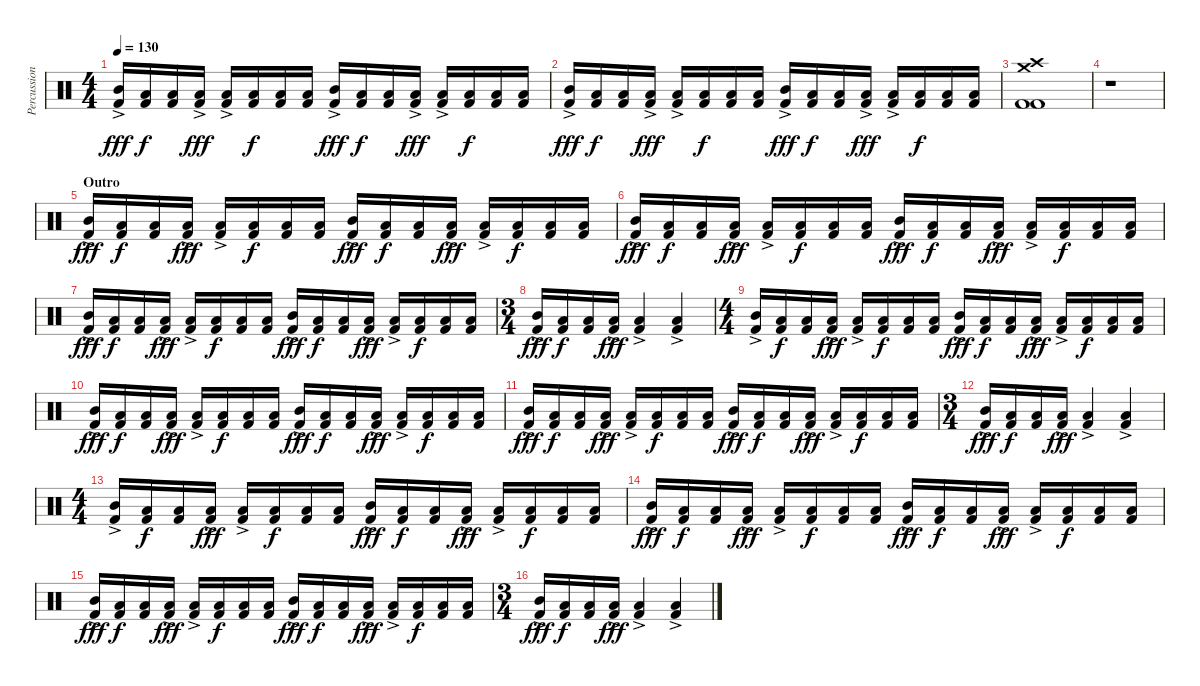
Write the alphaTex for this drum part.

\track ("Percussion" "Percussion") {instrument percussion}
\staff {score}
\articulation defaults
\ts (4 4)
\tempo 130
\clef neutral
\ks c
("Mid Tom (hit)"{ac} "Kick (hit) 2").16{dy fff} ("Low Floor Tom (hit)" "Kick (hit) 2").16{dy f} ("Low Floor Tom (hit)" "Kick (hit) 2").16 ("Low Tom (hit)"{ac} "Kick (hit) 2").16{dy fff} ("Low Tom (hit)"{ac} "Kick (hit) 2").16 ("Low Floor Tom (hit)" "Kick (hit) 2").16{dy f} ("Low Floor Tom (hit)" "Kick (hit) 2").16 ("Low Floor Tom (hit)" "Kick (hit) 2").16 ("Mid Tom (hit)"{ac} "Kick (hit) 2").16{dy fff} ("Low Floor Tom (hit)" "Kick (hit) 2").16{dy f} ("Low Floor Tom (hit)" "Kick (hit) 2").16 ("Low Tom (hit)"{ac} "Kick (hit) 2").16{dy fff} ("Low Tom (hit)"{ac} "Kick (hit) 2").16 ("Low Floor Tom (hit)" "Kick (hit) 2").16{dy f} ("Low Floor Tom (hit)" "Kick (hit) 2").16 ("Low Floor Tom (hit)" "Kick (hit) 2").16 |
("Mid Tom (hit)"{ac} "Kick (hit) 2").16{dy fff} ("Low Floor Tom (hit)" "Kick (hit) 2").16{dy f} ("Low Floor Tom (hit)" "Kick (hit) 2").16 ("Low Tom (hit)"{ac} "Kick (hit) 2").16{dy fff} ("Low Tom (hit)"{ac} "Kick (hit) 2").16 ("Low Floor Tom (hit)" "Kick (hit) 2").16{dy f} ("Low Floor Tom (hit)" "Kick (hit) 2").16 ("Low Floor Tom (hit)" "Kick (hit) 2").16 ("Mid Tom (hit)"{ac} "Kick (hit) 2").16{dy fff} ("Low Floor Tom (hit)" "Kick (hit) 2").16{dy f} ("Low Floor Tom (hit)" "Kick (hit) 2").16 ("Low Tom (hit)"{ac} "Kick (hit) 2").16{dy fff} ("Low Tom (hit)"{ac} "Kick (hit) 2").16 ("Low Floor Tom (hit)" "Kick (hit) 2").16{dy f} ("Low Floor Tom (hit)" "Kick (hit) 2").16 ("Low Floor Tom (hit)" "Kick (hit) 2").16 |
("Crash high (hit)" "Crash medium (hit)" "Kick (hit) 2" "Kick (hit) 2").1 |
r.1 |
\section ("" "Outro")
("Mid Tom (hit)"{ac} "Kick (hit) 2").16{dy fff} ("Low Floor Tom (hit)" "Kick (hit) 2").16{dy f} ("Low Floor Tom (hit)" "Kick (hit) 2").16 ("Low Tom (hit)"{ac} "Kick (hit) 2").16{dy fff} ("Low Tom (hit)"{ac} "Kick (hit) 2").16 ("Low Floor Tom (hit)" "Kick (hit) 2").16{dy f} ("Low Floor Tom (hit)" "Kick (hit) 2").16 ("Low Floor Tom (hit)" "Kick (hit) 2").16 ("Mid Tom (hit)"{ac} "Kick (hit) 2").16{dy fff} ("Low Floor Tom (hit)" "Kick (hit) 2").16{dy f} ("Low Floor Tom (hit)" "Kick (hit) 2").16 ("Low Tom (hit)"{ac} "Kick (hit) 2").16{dy fff} ("Low Tom (hit)"{ac} "Kick (hit) 2").16 ("Low Floor Tom (hit)" "Kick (hit) 2").16{dy f} ("Low Floor Tom (hit)" "Kick (hit) 2").16 ("Low Floor Tom (hit)" "Kick (hit) 2").16 |
("Mid Tom (hit)"{ac} "Kick (hit) 2").16{dy fff} ("Low Floor Tom (hit)" "Kick (hit) 2").16{dy f} ("Low Floor Tom (hit)" "Kick (hit) 2").16 ("Low Tom (hit)"{ac} "Kick (hit) 2").16{dy fff} ("Low Tom (hit)"{ac} "Kick (hit) 2").16 ("Low Floor Tom (hit)" "Kick (hit) 2").16{dy f} ("Low Floor Tom (hit)" "Kick (hit) 2").16 ("Low Floor Tom (hit)" "Kick (hit) 2").16 ("Mid Tom (hit)"{ac} "Kick (hit) 2").16{dy fff} ("Low Floor Tom (hit)" "Kick (hit) 2").16{dy f} ("Low Floor Tom (hit)" "Kick (hit) 2").16 ("Low Tom (hit)"{ac} "Kick (hit) 2").16{dy fff} ("Low Tom (hit)"{ac} "Kick (hit) 2").16 ("Low Floor Tom (hit)" "Kick (hit) 2").16{dy f} ("Low Floor Tom (hit)" "Kick (hit) 2").16 ("Low Floor Tom (hit)" "Kick (hit) 2").16 |
("Mid Tom (hit)"{ac} "Kick (hit) 2").16{dy fff} ("Low Floor Tom (hit)" "Kick (hit) 2").16{dy f} ("Low Floor Tom (hit)" "Kick (hit) 2").16 ("Low Tom (hit)"{ac} "Kick (hit) 2").16{dy fff} ("Low Tom (hit)"{ac} "Kick (hit) 2").16 ("Low Floor Tom (hit)" "Kick (hit) 2").16{dy f} ("Low Floor Tom (hit)" "Kick (hit) 2").16 ("Low Floor Tom (hit)" "Kick (hit) 2").16 ("Mid Tom (hit)"{ac} "Kick (hit) 2").16{dy fff} ("Low Floor Tom (hit)" "Kick (hit) 2").16{dy f} ("Low Floor Tom (hit)" "Kick (hit) 2").16 ("Low Tom (hit)"{ac} "Kick (hit) 2").16{dy fff} ("Low Tom (hit)"{ac} "Kick (hit) 2").16 ("Low Floor Tom (hit)" "Kick (hit) 2").16{dy f} ("Low Floor Tom (hit)" "Kick (hit) 2").16 ("Low Floor Tom (hit)" "Kick (hit) 2").16 |
\ts (3 4)
("Mid Tom (hit)"{ac} "Kick (hit) 2").16{dy fff} ("Low Floor Tom (hit)" "Kick (hit) 2").16{dy f} ("Low Floor Tom (hit)" "Kick (hit) 2").16 ("Low Tom (hit)"{ac} "Kick (hit) 2").16{dy fff} ("Low Tom (hit)"{ac} "Kick (hit) 2").4 ("Low Tom (hit)"{ac} "Kick (hit) 2"{ac}).4 |
\ts (4 4)
("Mid Tom (hit)"{ac} "Kick (hit) 2").16 ("Low Floor Tom (hit)" "Kick (hit) 2").16{dy f} ("Low Floor Tom (hit)" "Kick (hit) 2").16 ("Low Tom (hit)"{ac} "Kick (hit) 2").16{dy fff} ("Low Tom (hit)"{ac} "Kick (hit) 2").16 ("Low Floor Tom (hit)" "Kick (hit) 2").16{dy f} ("Low Floor Tom (hit)" "Kick (hit) 2").16 ("Low Floor Tom (hit)" "Kick (hit) 2").16 ("Mid Tom (hit)"{ac} "Kick (hit) 2").16{dy fff} ("Low Floor Tom (hit)" "Kick (hit) 2").16{dy f} ("Low Floor Tom (hit)" "Kick (hit) 2").16 ("Low Tom (hit)"{ac} "Kick (hit) 2").16{dy fff} ("Low Tom (hit)"{ac} "Kick (hit) 2").16 ("Low Floor Tom (hit)" "Kick (hit) 2").16{dy f} ("Low Floor Tom (hit)" "Kick (hit) 2").16 ("Low Floor Tom (hit)" "Kick (hit) 2").16 |
("Mid Tom (hit)"{ac} "Kick (hit) 2").16{dy fff} ("Low Floor Tom (hit)" "Kick (hit) 2").16{dy f} ("Low Floor Tom (hit)" "Kick (hit) 2").16 ("Low Tom (hit)"{ac} "Kick (hit) 2").16{dy fff} ("Low Tom (hit)"{ac} "Kick (hit) 2").16 ("Low Floor Tom (hit)" "Kick (hit) 2").16{dy f} ("Low Floor Tom (hit)" "Kick (hit) 2").16 ("Low Floor Tom (hit)" "Kick (hit) 2").16 ("Mid Tom (hit)"{ac} "Kick (hit) 2").16{dy fff} ("Low Floor Tom (hit)" "Kick (hit) 2").16{dy f} ("Low Floor Tom (hit)" "Kick (hit) 2").16 ("Low Tom (hit)"{ac} "Kick (hit) 2").16{dy fff} ("Low Tom (hit)"{ac} "Kick (hit) 2").16 ("Low Floor Tom (hit)" "Kick (hit) 2").16{dy f} ("Low Floor Tom (hit)" "Kick (hit) 2").16 ("Low Floor Tom (hit)" "Kick (hit) 2").16 |
("Mid Tom (hit)"{ac} "Kick (hit) 2").16{dy fff} ("Low Floor Tom (hit)" "Kick (hit) 2").16{dy f} ("Low Floor Tom (hit)" "Kick (hit) 2").16 ("Low Tom (hit)"{ac} "Kick (hit) 2").16{dy fff} ("Low Tom (hit)"{ac} "Kick (hit) 2").16 ("Low Floor Tom (hit)" "Kick (hit) 2").16{dy f} ("Low Floor Tom (hit)" "Kick (hit) 2").16 ("Low Floor Tom (hit)" "Kick (hit) 2").16 ("Mid Tom (hit)"{ac} "Kick (hit) 2").16{dy fff} ("Low Floor Tom (hit)" "Kick (hit) 2").16{dy f} ("Low Floor Tom (hit)" "Kick (hit) 2").16 ("Low Tom (hit)"{ac} "Kick (hit) 2").16{dy fff} ("Low Tom (hit)"{ac} "Kick (hit) 2").16 ("Low Floor Tom (hit)" "Kick (hit) 2").16{dy f} ("Low Floor Tom (hit)" "Kick (hit) 2").16 ("Low Floor Tom (hit)" "Kick (hit) 2").16 |
\ts (3 4)
("Mid Tom (hit)"{ac} "Kick (hit) 2").16{dy fff} ("Low Floor Tom (hit)" "Kick (hit) 2").16{dy f} ("Low Floor Tom (hit)" "Kick (hit) 2").16 ("Low Tom (hit)"{ac} "Kick (hit) 2").16{dy fff} ("Low Tom (hit)"{ac} "Kick (hit) 2").4 ("Low Tom (hit)"{ac} "Kick (hit) 2"{ac}).4 |
\ts (4 4)
("Mid Tom (hit)"{ac} "Kick (hit) 2").16 ("Low Floor Tom (hit)" "Kick (hit) 2").16{dy f} ("Low Floor Tom (hit)" "Kick (hit) 2").16 ("Low Tom (hit)"{ac} "Kick (hit) 2").16{dy fff} ("Low Tom (hit)"{ac} "Kick (hit) 2").16 ("Low Floor Tom (hit)" "Kick (hit) 2").16{dy f} ("Low Floor Tom (hit)" "Kick (hit) 2").16 ("Low Floor Tom (hit)" "Kick (hit) 2").16 ("Mid Tom (hit)"{ac} "Kick (hit) 2").16{dy fff} ("Low Floor Tom (hit)" "Kick (hit) 2").16{dy f} ("Low Floor Tom (hit)" "Kick (hit) 2").16 ("Low Tom (hit)"{ac} "Kick (hit) 2").16{dy fff} ("Low Tom (hit)"{ac} "Kick (hit) 2").16 ("Low Floor Tom (hit)" "Kick (hit) 2").16{dy f} ("Low Floor Tom (hit)" "Kick (hit) 2").16 ("Low Floor Tom (hit)" "Kick (hit) 2").16 |
("Mid Tom (hit)"{ac} "Kick (hit) 2").16{dy fff} ("Low Floor Tom (hit)" "Kick (hit) 2").16{dy f} ("Low Floor Tom (hit)" "Kick (hit) 2").16 ("Low Tom (hit)"{ac} "Kick (hit) 2").16{dy fff} ("Low Tom (hit)"{ac} "Kick (hit) 2").16 ("Low Floor Tom (hit)" "Kick (hit) 2").16{dy f} ("Low Floor Tom (hit)" "Kick (hit) 2").16 ("Low Floor Tom (hit)" "Kick (hit) 2").16 ("Mid Tom (hit)"{ac} "Kick (hit) 2").16{dy fff} ("Low Floor Tom (hit)" "Kick (hit) 2").16{dy f} ("Low Floor Tom (hit)" "Kick (hit) 2").16 ("Low Tom (hit)"{ac} "Kick (hit) 2").16{dy fff} ("Low Tom (hit)"{ac} "Kick (hit) 2").16 ("Low Floor Tom (hit)" "Kick (hit) 2").16{dy f} ("Low Floor Tom (hit)" "Kick (hit) 2").16 ("Low Floor Tom (hit)" "Kick (hit) 2").16 |
("Mid Tom (hit)"{ac} "Kick (hit) 2").16{dy fff} ("Low Floor Tom (hit)" "Kick (hit) 2").16{dy f} ("Low Floor Tom (hit)" "Kick (hit) 2").16 ("Low Tom (hit)"{ac} "Kick (hit) 2").16{dy fff} ("Low Tom (hit)"{ac} "Kick (hit) 2").16 ("Low Floor Tom (hit)" "Kick (hit) 2").16{dy f} ("Low Floor Tom (hit)" "Kick (hit) 2").16 ("Low Floor Tom (hit)" "Kick (hit) 2").16 ("Mid Tom (hit)"{ac} "Kick (hit) 2").16{dy fff} ("Low Floor Tom (hit)" "Kick (hit) 2").16{dy f} ("Low Floor Tom (hit)" "Kick (hit) 2").16 ("Low Tom (hit)"{ac} "Kick (hit) 2").16{dy fff} ("Low Tom (hit)"{ac} "Kick (hit) 2").16 ("Low Floor Tom (hit)" "Kick (hit) 2").16{dy f} ("Low Floor Tom (hit)" "Kick (hit) 2").16 ("Low Floor Tom (hit)" "Kick (hit) 2").16 |
\ts (3 4)
("Mid Tom (hit)"{ac} "Kick (hit) 2").16{dy fff} ("Low Floor Tom (hit)" "Kick (hit) 2").16{dy f} ("Low Floor Tom (hit)" "Kick (hit) 2").16 ("Low Tom (hit)"{ac} "Kick (hit) 2").16{dy fff} ("Low Tom (hit)"{ac} "Kick (hit) 2").4 ("Low Tom (hit)"{ac} "Kick (hit) 2"{ac}).4
